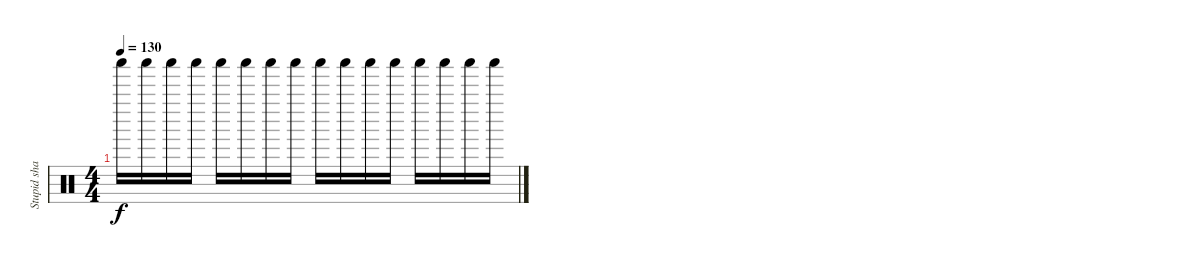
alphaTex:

\track ("Stupid shaker" "Stupid sha") {instrument percussion}
\staff {score}
\articulation defaults
\ts (4 4)
\tempo 130
\clef neutral
\ks c "Shaker (hit)".16{dy f} "Shaker (hit)".16 "Shaker (hit)".16 "Shaker (hit)".16 "Shaker (hit)".16 "Shaker (hit)".16 "Shaker (hit)".16 "Shaker (hit)".16 "Shaker (hit)".16 "Shaker (hit)".16 "Shaker (hit)".16 "Shaker (hit)".16 "Shaker (hit)".16 "Shaker (hit)".16 "Shaker (hit)".16 "Shaker (hit)".16
